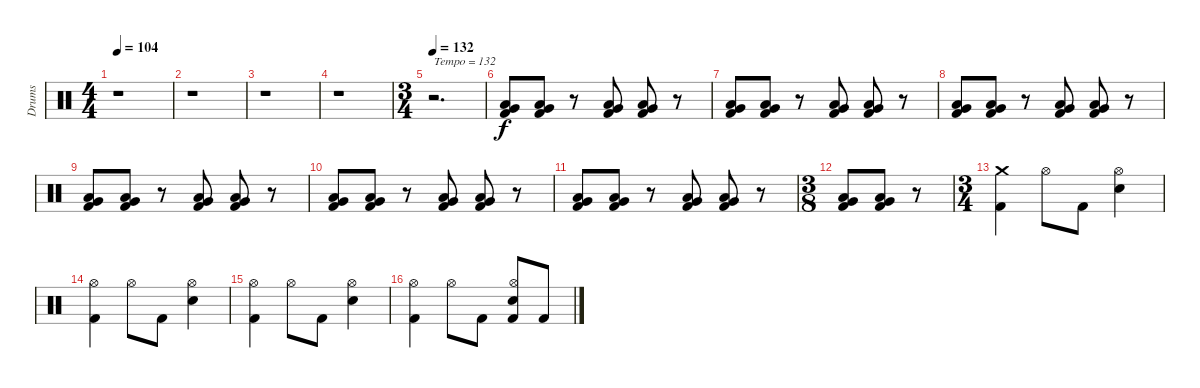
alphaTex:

\track ("Drums" "Drums") {instrument percussion}
\staff {score}
\articulation defaults
\ts (4 4)
\tempo 104
\clef neutral
\ks c
r.1{dy f} |
r.1 |
r.1 |
r.1 |
\ts (3 4)
\tempo 132
r.2{d txt "Tempo = 132" volume 0} |
("Very Low Tom (hit)" "Low Floor Tom (hit)" "Kick (hit) 2").8{volume 1} ("Very Low Tom (hit)" "Low Floor Tom (hit)" "Kick (hit) 2").8 r.8 ("Very Low Tom (hit)" "Low Floor Tom (hit)" "Kick (hit) 2").8{volume 2} ("Very Low Tom (hit)" "Low Floor Tom (hit)" "Kick (hit) 2").8 r.8 |
("Very Low Tom (hit)" "Low Floor Tom (hit)" "Kick (hit) 2").8{volume 4} ("Very Low Tom (hit)" "Low Floor Tom (hit)" "Kick (hit) 2").8 r.8 ("Very Low Tom (hit)" "Low Floor Tom (hit)" "Kick (hit) 2").8{volume 6} ("Very Low Tom (hit)" "Low Floor Tom (hit)" "Kick (hit) 2").8 r.8 |
("Very Low Tom (hit)" "Low Floor Tom (hit)" "Kick (hit) 2").8{volume 8} ("Very Low Tom (hit)" "Low Floor Tom (hit)" "Kick (hit) 2").8 r.8 ("Very Low Tom (hit)" "Low Floor Tom (hit)" "Kick (hit) 2").8{volume 10} ("Very Low Tom (hit)" "Low Floor Tom (hit)" "Kick (hit) 2").8 r.8 |
("Very Low Tom (hit)" "Low Floor Tom (hit)" "Kick (hit) 2").8{volume 12} ("Very Low Tom (hit)" "Low Floor Tom (hit)" "Kick (hit) 2").8 r.8 ("Very Low Tom (hit)" "Low Floor Tom (hit)" "Kick (hit) 2").8{volume 14} ("Very Low Tom (hit)" "Low Floor Tom (hit)" "Kick (hit) 2").8 r.8 |
("Very Low Tom (hit)" "Low Floor Tom (hit)" "Kick (hit) 2").8{volume 16} ("Very Low Tom (hit)" "Low Floor Tom (hit)" "Kick (hit) 2").8 r.8 ("Very Low Tom (hit)" "Low Floor Tom (hit)" "Kick (hit) 2").8 ("Very Low Tom (hit)" "Low Floor Tom (hit)" "Kick (hit) 2").8 r.8 |
("Very Low Tom (hit)" "Low Floor Tom (hit)" "Kick (hit) 2").8 ("Very Low Tom (hit)" "Low Floor Tom (hit)" "Kick (hit) 2").8 r.8 ("Very Low Tom (hit)" "Low Floor Tom (hit)" "Kick (hit) 2").8 ("Very Low Tom (hit)" "Low Floor Tom (hit)" "Kick (hit) 2").8 r.8 |
\ts (3 8)
("Very Low Tom (hit)" "Low Floor Tom (hit)" "Kick (hit) 2").8 ("Very Low Tom (hit)" "Low Floor Tom (hit)" "Kick (hit) 2").8 r.8 |
\ts (3 4)
("Crash medium (hit)" "Kick (hit) 2").4 "Hi-Hat (open)".8 "Kick (hit) 2".8 ("Hi-Hat (open)" "Electric Snare (hit)").4 |
("Hi-Hat (open)" "Kick (hit) 2").4 "Hi-Hat (open)".8 "Kick (hit) 2".8 ("Hi-Hat (open)" "Electric Snare (hit)").4 |
("Hi-Hat (open)" "Kick (hit) 2").4 "Hi-Hat (open)".8 "Kick (hit) 2".8 ("Hi-Hat (open)" "Electric Snare (hit)").4 |
("Hi-Hat (open)" "Kick (hit) 2").4 "Hi-Hat (open)".8 "Kick (hit) 2".8 ("Hi-Hat (open)" "Electric Snare (hit)" "Kick (hit) 2").8 "Kick (hit) 2".8
